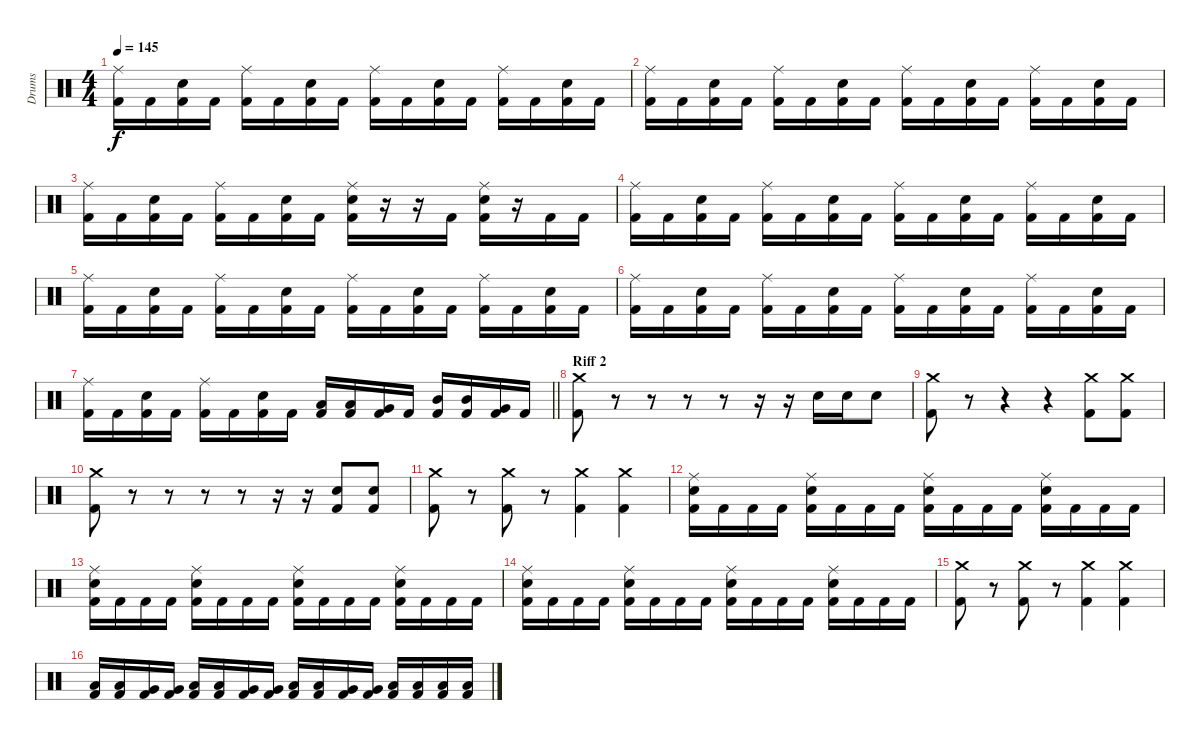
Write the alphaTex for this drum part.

\track ("Drums" "Drums") {instrument percussion}
\staff {score}
\articulation defaults
\ts (4 4)
\tempo 145
\clef neutral
\ks c
("Ride (middle)" "Kick (hit) 2").16{dy f} "Kick (hit) 2".16 ("Electric Snare (hit)" "Kick (hit) 2").16 "Kick (hit) 2".16 ("Ride (middle)" "Kick (hit) 2").16 "Kick (hit) 2".16 ("Electric Snare (hit)" "Kick (hit) 2").16 "Kick (hit) 2".16 ("Ride (middle)" "Kick (hit) 2").16 "Kick (hit) 2".16 ("Electric Snare (hit)" "Kick (hit) 2").16 "Kick (hit) 2".16 ("Ride (middle)" "Kick (hit) 2").16 "Kick (hit) 2".16 ("Electric Snare (hit)" "Kick (hit) 2").16 "Kick (hit) 2".16 |
("Ride (middle)" "Kick (hit) 2").16 "Kick (hit) 2".16 ("Electric Snare (hit)" "Kick (hit) 2").16 "Kick (hit) 2".16 ("Ride (middle)" "Kick (hit) 2").16 "Kick (hit) 2".16 ("Electric Snare (hit)" "Kick (hit) 2").16 "Kick (hit) 2".16 ("Ride (middle)" "Kick (hit) 2").16 "Kick (hit) 2".16 ("Electric Snare (hit)" "Kick (hit) 2").16 "Kick (hit) 2".16 ("Ride (middle)" "Kick (hit) 2").16 "Kick (hit) 2".16 ("Electric Snare (hit)" "Kick (hit) 2").16 "Kick (hit) 2".16 |
("Ride (middle)" "Kick (hit) 2").16 "Kick (hit) 2".16 ("Electric Snare (hit)" "Kick (hit) 2").16 "Kick (hit) 2".16 ("Ride (middle)" "Kick (hit) 2").16 "Kick (hit) 2".16 ("Electric Snare (hit)" "Kick (hit) 2").16 "Kick (hit) 2".16 ("Ride (middle)" "Electric Snare (hit)" "Kick (hit) 2").16 r.16 r.16 "Kick (hit) 2".16 ("Ride (middle)" "Electric Snare (hit)" "Kick (hit) 2").16 r.16 "Kick (hit) 2".16 "Kick (hit) 2".16 |
("Ride (middle)" "Kick (hit) 2").16 "Kick (hit) 2".16 ("Electric Snare (hit)" "Kick (hit) 2").16 "Kick (hit) 2".16 ("Ride (middle)" "Kick (hit) 2").16 "Kick (hit) 2".16 ("Electric Snare (hit)" "Kick (hit) 2").16 "Kick (hit) 2".16 ("Ride (middle)" "Kick (hit) 2").16 "Kick (hit) 2".16 ("Electric Snare (hit)" "Kick (hit) 2").16 "Kick (hit) 2".16 ("Ride (middle)" "Kick (hit) 2").16 "Kick (hit) 2".16 ("Electric Snare (hit)" "Kick (hit) 2").16 "Kick (hit) 2".16 |
("Ride (middle)" "Kick (hit) 2").16 "Kick (hit) 2".16 ("Electric Snare (hit)" "Kick (hit) 2").16 "Kick (hit) 2".16 ("Ride (middle)" "Kick (hit) 2").16 "Kick (hit) 2".16 ("Electric Snare (hit)" "Kick (hit) 2").16 "Kick (hit) 2".16 ("Ride (middle)" "Kick (hit) 2").16 "Kick (hit) 2".16 ("Electric Snare (hit)" "Kick (hit) 2").16 "Kick (hit) 2".16 ("Ride (middle)" "Kick (hit) 2").16 "Kick (hit) 2".16 ("Electric Snare (hit)" "Kick (hit) 2").16 "Kick (hit) 2".16 |
("Ride (middle)" "Kick (hit) 2").16 "Kick (hit) 2".16 ("Electric Snare (hit)" "Kick (hit) 2").16 "Kick (hit) 2".16 ("Ride (middle)" "Kick (hit) 2").16 "Kick (hit) 2".16 ("Electric Snare (hit)" "Kick (hit) 2").16 "Kick (hit) 2".16 ("Ride (middle)" "Kick (hit) 2").16 "Kick (hit) 2".16 ("Electric Snare (hit)" "Kick (hit) 2").16 "Kick (hit) 2".16 ("Ride (middle)" "Kick (hit) 2").16 "Kick (hit) 2".16 ("Electric Snare (hit)" "Kick (hit) 2").16 "Kick (hit) 2".16 |
\barLineRight lightlight
("Ride (middle)" "Kick (hit) 2").16 "Kick (hit) 2".16 ("Electric Snare (hit)" "Kick (hit) 2").16 "Kick (hit) 2".16 ("Ride (middle)" "Kick (hit) 2").16 "Kick (hit) 2".16 ("Electric Snare (hit)" "Kick (hit) 2").16 "Kick (hit) 2".16 ("Low Floor Tom (hit)" "Kick (hit) 2").16 ("Low Floor Tom (hit)" "Kick (hit) 2").16 ("Very Low Tom (hit)" "Kick (hit) 2").16 "Kick (hit) 2".16 ("Mid Tom (hit)" "Kick (hit) 2").16 ("Mid Tom (hit)" "Kick (hit) 2").16 ("Very Low Tom (hit)" "Kick (hit) 2").16 "Kick (hit) 2".16 |
\section ("" "Riff 2")
("Crash medium (hit)" "Kick (hit) 2").8 r.8 r.8 r.8 r.8 r.16 r.16 "Electric Snare (hit)".16 "Electric Snare (hit)".16 "Electric Snare (hit)".8 |
("Crash medium (hit)" "Kick (hit) 2").8 r.8 r.4 r.4 ("Crash medium (hit)" "Kick (hit) 2").8 ("Crash medium (hit)" "Kick (hit) 2").8 |
("Crash medium (hit)" "Kick (hit) 2").8 r.8 r.8 r.8 r.8 r.16 r.16 ("Kick (hit) 2" "Electric Snare (hit)").8 ("Kick (hit) 2" "Electric Snare (hit)").8 |
("Crash medium (hit)" "Kick (hit) 2").8 r.8 ("Crash medium (hit)" "Kick (hit) 2").8 r.8 ("Crash medium (hit)" "Kick (hit) 2").4 ("Crash medium (hit)" "Kick (hit) 2").4 |
("Ride (middle)" "Electric Snare (hit)" "Kick (hit) 2").16 "Kick (hit) 2".16 "Kick (hit) 2".16 "Kick (hit) 2".16 ("Ride (middle)" "Electric Snare (hit)" "Kick (hit) 2").16 "Kick (hit) 2".16 "Kick (hit) 2".16 "Kick (hit) 2".16 ("Ride (middle)" "Electric Snare (hit)" "Kick (hit) 2").16 "Kick (hit) 2".16 "Kick (hit) 2".16 "Kick (hit) 2".16 ("Ride (middle)" "Electric Snare (hit)" "Kick (hit) 2").16 "Kick (hit) 2".16 "Kick (hit) 2".16 "Kick (hit) 2".16 |
("Ride (middle)" "Electric Snare (hit)" "Kick (hit) 2").16 "Kick (hit) 2".16 "Kick (hit) 2".16 "Kick (hit) 2".16 ("Ride (middle)" "Electric Snare (hit)" "Kick (hit) 2").16 "Kick (hit) 2".16 "Kick (hit) 2".16 "Kick (hit) 2".16 ("Ride (middle)" "Electric Snare (hit)" "Kick (hit) 2").16 "Kick (hit) 2".16 "Kick (hit) 2".16 "Kick (hit) 2".16 ("Ride (middle)" "Electric Snare (hit)" "Kick (hit) 2").16 "Kick (hit) 2".16 "Kick (hit) 2".16 "Kick (hit) 2".16 |
("Ride (middle)" "Electric Snare (hit)" "Kick (hit) 2").16 "Kick (hit) 2".16 "Kick (hit) 2".16 "Kick (hit) 2".16 ("Ride (middle)" "Electric Snare (hit)" "Kick (hit) 2").16 "Kick (hit) 2".16 "Kick (hit) 2".16 "Kick (hit) 2".16 ("Ride (middle)" "Electric Snare (hit)" "Kick (hit) 2").16 "Kick (hit) 2".16 "Kick (hit) 2".16 "Kick (hit) 2".16 ("Ride (middle)" "Electric Snare (hit)" "Kick (hit) 2").16 "Kick (hit) 2".16 "Kick (hit) 2".16 "Kick (hit) 2".16 |
("Crash medium (hit)" "Kick (hit) 2").8 r.8 ("Crash medium (hit)" "Kick (hit) 2").8 r.8 ("Crash medium (hit)" "Kick (hit) 2").4 ("Crash medium (hit)" "Kick (hit) 2").4 |
("Low Floor Tom (hit)" "Kick (hit) 2").16 ("Low Floor Tom (hit)" "Kick (hit) 2").16 ("Very Low Tom (hit)" "Kick (hit) 2").16 ("Very Low Tom (hit)" "Kick (hit) 2").16 ("Low Floor Tom (hit)" "Kick (hit) 2").16 ("Low Floor Tom (hit)" "Kick (hit) 2").16 ("Very Low Tom (hit)" "Kick (hit) 2").16 ("Very Low Tom (hit)" "Kick (hit) 2").16 ("Low Floor Tom (hit)" "Kick (hit) 2").16 ("Low Floor Tom (hit)" "Kick (hit) 2").16 ("Very Low Tom (hit)" "Kick (hit) 2").16 ("Very Low Tom (hit)" "Kick (hit) 2").16 ("Low Floor Tom (hit)" "Kick (hit) 2").16 ("Low Floor Tom (hit)" "Kick (hit) 2").16 ("Low Tom (hit)" "Kick (hit) 2").16 ("Low Tom (hit)" "Kick (hit) 2").16
